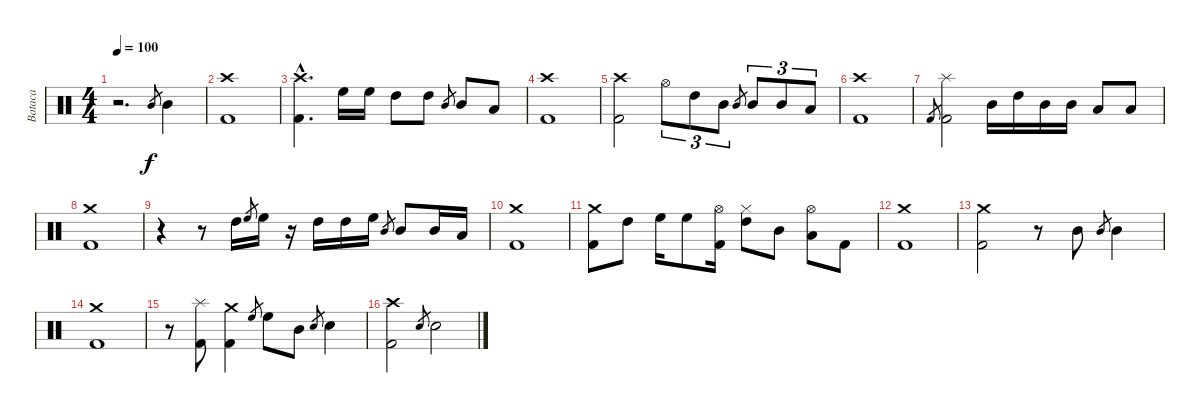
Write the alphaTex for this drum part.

\track ("Bataca" "Bataca") {instrument percussion}
\staff {score}
\articulation defaults
\ts (4 4)
\tempo 100
\clef neutral
\ks c
r.2{d dy f} "Mid Tom (hit)".8{gr} "Mid Tom (hit)".4 |
("Crash high (hit)" "Kick (hit) 2").1 |
("Crash high (hit)"{hac} "Kick (hit) 2"{hac}).4{d} "High Floor Tom (hit)".16 "High Floor Tom (hit)".16 "High Tom (hit)".8 "High Tom (hit)".8 "Mid Tom (hit)".8{gr} "Mid Tom (hit)".8 "Low Tom (hit)".8 |
("Crash high (hit)" "Kick (hit) 2").1 |
("Crash high (hit)" "Kick (hit) 2").2 "Hi-Hat (open)".8{tu (3 2)} "High Tom (hit)".8{tu (3 2)} "Mid Tom (hit)".8{tu (3 2)} "Mid Tom (hit)".8{gr} "Mid Tom (hit)".8{tu (3 2)} "Mid Tom (hit)".8{tu (3 2)} "Low Tom (hit)".8{tu (3 2)} |
("Crash high (hit)" "Kick (hit) 2").1 |
"Kick (hit) 2".8{gr} ("Splash (hit)" "Kick (hit) 2").2 "Mid Tom (hit)".16 "High Tom (hit)".16 "Mid Tom (hit)".16 "Mid Tom (hit)".16 "Low Tom (hit)".8 "Low Tom (hit)".8 |
("Crash medium (hit)" "Kick (hit) 2").1 |
r.4 r.8 "High Tom (hit)".16 "High Floor Tom (hit)".8{gr} "High Floor Tom (hit)".16 r.16 "High Tom (hit)".16 "High Tom (hit)".16 "High Floor Tom (hit)".16 "Mid Tom (hit)".8{gr} "Mid Tom (hit)".8 "Mid Tom (hit)".16 "Low Tom (hit)".16 |
("Crash medium (hit)" "Kick (hit) 2").1 |
("Crash medium (hit)" "Kick (hit) 2").8 "High Tom (hit)".8 "High Floor Tom (hit)".16 "High Floor Tom (hit)".8 ("Hi-Hat (open)" "Kick (hit) 2").16 ("High Tom (hit)" "Hi-Hat (closed)").8 "Mid Tom (hit)".8 ("Hi-Hat (open)" "Low Tom (hit)").8 "Kick (hit) 2".8 |
("Crash medium (hit)" "Kick (hit) 2").1 |
("Crash medium (hit)" "Kick (hit) 2").2 r.8 "Mid Tom (hit)".8 "Mid Tom (hit)".8{gr} "Mid Tom (hit)".4 |
("Crash medium (hit)" "Kick (hit) 2").1 |
r.8 ("Splash (hit)" "Kick (hit) 2").8 ("Crash medium (hit)" "Kick (hit) 2").4 "High Floor Tom (hit)".8{gr} "High Floor Tom (hit)".8 "Mid Tom (hit)".8 "Electric Snare (hit)".8{gr} "Electric Snare (hit)".4 |
("Crash high (hit)" "Kick (hit) 2").2 "Electric Snare (hit)".8{gr} "Electric Snare (hit)".2
